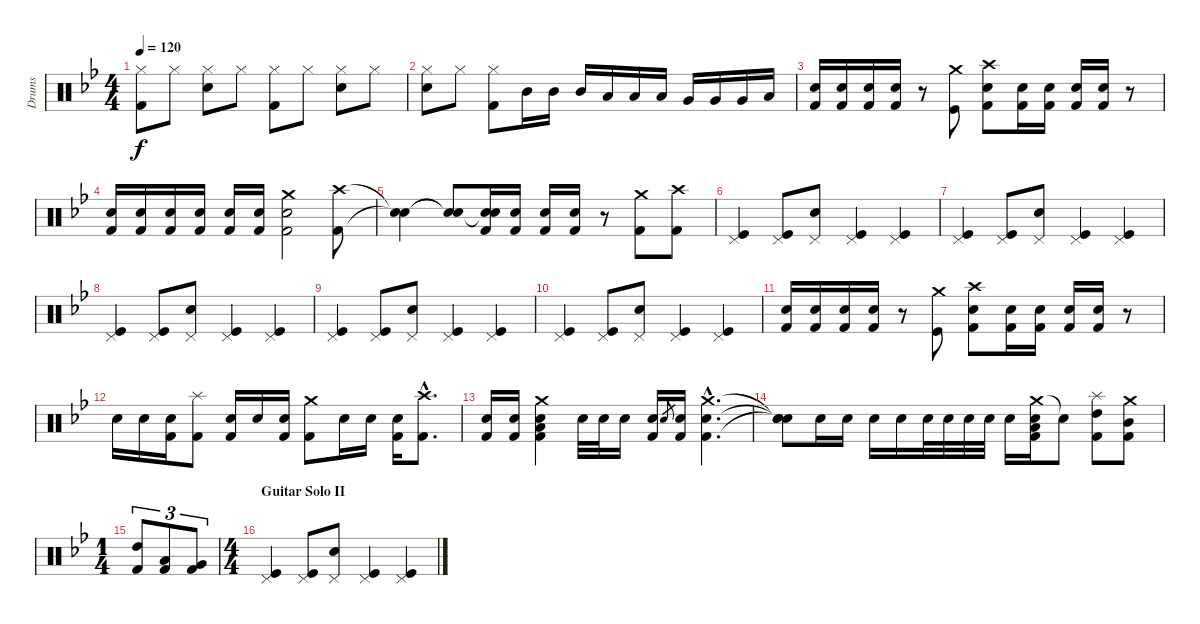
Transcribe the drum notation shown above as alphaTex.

\track ("Drums" "Drums") {instrument percussion}
\staff {score}
\articulation defaults
\ts (4 4)
\tempo 120
\clef neutral
\ks bb
("Hi-Hat (closed)" "Kick (hit) 2").8{dy f} "Hi-Hat (closed)".8 ("Hi-Hat (closed)" "Electric Snare (hit)").8 "Hi-Hat (closed)".8 ("Hi-Hat (closed)" "Kick (hit) 2").8 "Hi-Hat (closed)".8 ("Hi-Hat (closed)" "Electric Snare (hit)").8 "Hi-Hat (closed)".8 |
("Hi-Hat (closed)" "Electric Snare (hit)").8 "Hi-Hat (closed)".8 ("Hi-Hat (closed)" "Kick (hit) 2").8 "Mid Tom (hit)".16 "Mid Tom (hit)".16 "Mid Tom (hit)".16 "Low Tom (hit)".16 "Low Tom (hit)".16 "Low Tom (hit)".16 "Very Low Tom (hit)".16 "Very Low Tom (hit)".16 "Very Low Tom (hit)".16 "Low Floor Tom (hit)".16 |
("Electric Snare (hit)" "Kick (hit) 2").16 ("Electric Snare (hit)" "Kick (hit) 2").16 ("Electric Snare (hit)" "Kick (hit) 2").16 ("Electric Snare (hit)" "Kick (hit) 2").16 r.8 ("Crash medium (hit)" "Kick (hit)").8 ("Crash high (hit)" "Electric Snare (hit)" "Kick (hit) 2").8 ("Electric Snare (hit)" "Kick (hit) 2").16 ("Electric Snare (hit)" "Kick (hit) 2").16 ("Electric Snare (hit)" "Kick (hit) 2").16 ("Electric Snare (hit)" "Kick (hit) 2").16 r.8 |
("Electric Snare (hit)" "Kick (hit) 2").16 ("Electric Snare (hit)" "Kick (hit) 2").16 ("Electric Snare (hit)" "Kick (hit) 2").16 ("Electric Snare (hit)" "Kick (hit) 2").16 ("Electric Snare (hit)" "Kick (hit) 2").16 ("Electric Snare (hit)" "Kick (hit) 2").16 ("Crash medium (hit)" "Electric Snare (hit)" "Kick (hit) 2").2 ("Crash high (hit)" "Kick (hit) 2").8 |
("Snare (hit)"{t} "Snare (hit)"{t}).4 ("Snare (hit)"{t} "Snare (hit)"{t}).8 ("Snare (hit)"{t} "Electric Snare (hit)" "Kick (hit) 2").16 ("Electric Snare (hit)" "Kick (hit) 2").16 ("Electric Snare (hit)" "Kick (hit) 2").16 ("Electric Snare (hit)" "Kick (hit) 2").16 r.8 ("Crash medium (hit)" "Kick (hit) 2").8 ("Crash high (hit)" "Kick (hit) 2").8 |
("Pedal Hi-Hat (hit)" "Kick (hit)").4 ("Pedal Hi-Hat (hit)" "Kick (hit)").8 ("Pedal Hi-Hat (hit)" "Electric Snare (hit)").8 ("Pedal Hi-Hat (hit)" "Kick (hit)").4 ("Pedal Hi-Hat (hit)" "Kick (hit)").4 |
("Pedal Hi-Hat (hit)" "Kick (hit)").4 ("Pedal Hi-Hat (hit)" "Kick (hit)").8 ("Pedal Hi-Hat (hit)" "Electric Snare (hit)").8 ("Pedal Hi-Hat (hit)" "Kick (hit)").4 ("Pedal Hi-Hat (hit)" "Kick (hit)").4 |
("Pedal Hi-Hat (hit)" "Kick (hit)").4 ("Pedal Hi-Hat (hit)" "Kick (hit)").8 ("Pedal Hi-Hat (hit)" "Electric Snare (hit)").8 ("Pedal Hi-Hat (hit)" "Kick (hit)").4 ("Pedal Hi-Hat (hit)" "Kick (hit)").4 |
("Pedal Hi-Hat (hit)" "Kick (hit)").4 ("Pedal Hi-Hat (hit)" "Kick (hit)").8 ("Pedal Hi-Hat (hit)" "Electric Snare (hit)").8 ("Pedal Hi-Hat (hit)" "Kick (hit)").4 ("Pedal Hi-Hat (hit)" "Kick (hit)").4 |
("Pedal Hi-Hat (hit)" "Kick (hit)").4 ("Pedal Hi-Hat (hit)" "Kick (hit)").8 ("Pedal Hi-Hat (hit)" "Electric Snare (hit)").8 ("Pedal Hi-Hat (hit)" "Kick (hit)").4 ("Pedal Hi-Hat (hit)" "Kick (hit)").4 |
("Electric Snare (hit)" "Kick (hit) 2").16 ("Electric Snare (hit)" "Kick (hit) 2").16 ("Electric Snare (hit)" "Kick (hit) 2").16 ("Electric Snare (hit)" "Kick (hit) 2").16 r.8 ("Crash medium (hit)" "Kick (hit)").8 ("Crash high (hit)" "Electric Snare (hit)" "Kick (hit) 2").8 ("Electric Snare (hit)" "Kick (hit) 2").16 ("Electric Snare (hit)" "Kick (hit) 2").16 ("Electric Snare (hit)" "Kick (hit) 2").16 ("Electric Snare (hit)" "Kick (hit) 2").16 r.8 |
"Electric Snare (hit)".16 "Electric Snare (hit)".16 ("Electric Snare (hit)" "Kick (hit) 2").16 ("Splash (hit)" "Kick (hit) 2").8 ("Electric Snare (hit)" "Kick (hit) 2").16 "Electric Snare (hit)".16 ("Electric Snare (hit)" "Kick (hit) 2").16 ("Crash medium (hit)" "Kick (hit) 2").8 "Electric Snare (hit)".16 "Electric Snare (hit)".16 ("Electric Snare (hit)" "Kick (hit) 2").16 ("Crash high (hit)"{hac} "Kick (hit) 2"{hac}).8{d} |
("Electric Snare (hit)" "Kick (hit) 2").16 ("Electric Snare (hit)" "Kick (hit) 2").16 ("Crash medium (hit)" "Electric Snare (hit)" "Low Tom (hit)" "Kick (hit) 2").4 "Electric Snare (hit)".32 "Electric Snare (hit)".32 "Electric Snare (hit)".16 ("Electric Snare (hit)" "Kick (hit) 2").16 "Electric Snare (hit)".8{gr} ("Electric Snare (hit)" "Kick (hit) 2").16 ("Crash medium (hit)"{hac} "Electric Snare (hit)"{hac} "Kick (hit) 2"{hac}).4{d} |
("Snare (hit)"{t} "Snare (hit)"{t} "Snare (hit)"{t}).8 "Electric Snare (hit)".16 "Electric Snare (hit)".16 "Electric Snare (hit)".16 "Electric Snare (hit)".16 "Electric Snare (hit)".32 "Electric Snare (hit)".32 "Electric Snare (hit)".32 "Electric Snare (hit)".32 "Electric Snare (hit)".16 ("Crash medium (hit)" "Electric Snare (hit)" "Low Tom (hit)" "Kick (hit) 2").16 "Snare (hit)"{t}.8 ("Splash (hit)" "High Tom (hit)" "Kick (hit) 2").8 ("Crash medium (hit)" "Mid Tom (hit)" "Kick (hit) 2").8 |
\ts (1 4)
("High Tom (hit)" "Kick (hit) 2").8{tu (3 2)} ("Low Tom (hit)" "Kick (hit) 2").8{tu (3 2)} ("Very Low Tom (hit)" "Kick (hit) 2").8{tu (3 2)} |
\ts (4 4)
\section ("" "Guitar Solo II")
("Pedal Hi-Hat (hit)" "Kick (hit)").4 ("Pedal Hi-Hat (hit)" "Kick (hit)").8 ("Pedal Hi-Hat (hit)" "Electric Snare (hit)").8 ("Pedal Hi-Hat (hit)" "Kick (hit)").4 ("Pedal Hi-Hat (hit)" "Kick (hit)").4
